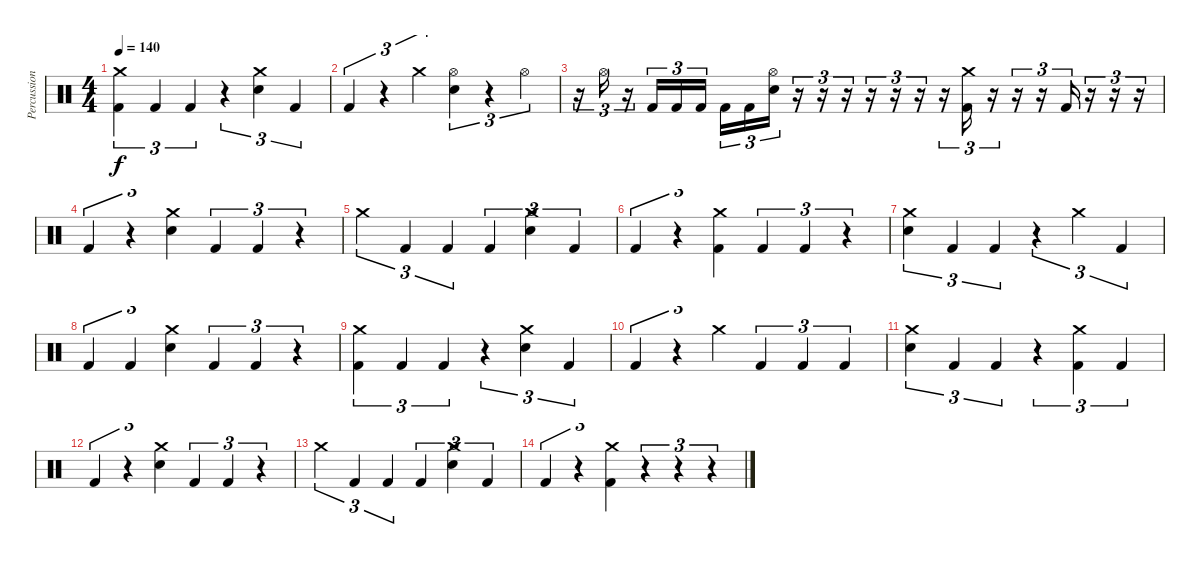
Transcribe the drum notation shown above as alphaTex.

\track ("Percussion" "Percussion") {instrument percussion}
\staff {score}
\articulation defaults
\ts (4 4)
\tempo 140
\clef neutral
\ks c
("Crash medium (hit)" "Kick (hit) 2").4{tu (3 2) dy f} "Kick (hit) 2".4{tu (3 2)} "Kick (hit) 2".4{tu (3 2)} r.4{tu (3 2)} ("Crash medium (hit)" "Electric Snare (hit)").4{tu (3 2)} "Kick (hit) 2".4{tu (3 2)} |
"Kick (hit) 2".4{tu (3 2)} r.4{tu (3 2)} "Crash medium (hit)".4{tu (3 2)} ("Hi-Hat (open)" "Electric Snare (hit)").4{tu (3 2)} r.4{tu (3 2)} "Hi-Hat (open)".4{tu (3 2)} |
r.16{tu (3 2)} "Hi-Hat (open)".16{tu (3 2)} r.16{tu (3 2)} "Kick (hit) 2".16{tu (3 2)} "Kick (hit) 2".16{tu (3 2)} "Kick (hit) 2".16{tu (3 2)} "Kick (hit) 2".16{tu (3 2)} "Kick (hit) 2".16{tu (3 2)} ("Hi-Hat (open)" "Electric Snare (hit)").16{tu (3 2)} r.16{tu (3 2)} r.16{tu (3 2)} r.16{tu (3 2)} r.16{tu (3 2)} r.16{tu (3 2)} r.16{tu (3 2)} r.16{tu (3 2)} ("Crash medium (hit)" "Kick (hit) 2").16{tu (3 2)} r.16{tu (3 2)} r.16{tu (3 2)} r.16{tu (3 2)} "Kick (hit) 2".16{tu (3 2)} r.16{tu (3 2)} r.16{tu (3 2)} r.16{tu (3 2)} |
"Kick (hit) 2".4{tu (3 2)} r.4{tu (3 2)} ("Crash medium (hit)" "Electric Snare (hit)").4{tu (3 2)} "Kick (hit) 2".4{tu (3 2)} "Kick (hit) 2".4{tu (3 2)} r.4{tu (3 2)} |
"Crash medium (hit)".4{tu (3 2)} "Kick (hit) 2".4{tu (3 2)} "Kick (hit) 2".4{tu (3 2)} "Kick (hit) 2".4{tu (3 2)} ("Crash medium (hit)" "Electric Snare (hit)").4{tu (3 2)} "Kick (hit) 2".4{tu (3 2)} |
"Kick (hit) 2".4{tu (3 2)} r.4{tu (3 2)} ("Crash medium (hit)" "Kick (hit) 2").4{tu (3 2)} "Kick (hit) 2".4{tu (3 2)} "Kick (hit) 2".4{tu (3 2)} r.4{tu (3 2)} |
("Crash medium (hit)" "Electric Snare (hit)").4{tu (3 2)} "Kick (hit) 2".4{tu (3 2)} "Kick (hit) 2".4{tu (3 2)} r.4{tu (3 2)} "Crash medium (hit)".4{tu (3 2)} "Kick (hit) 2".4{tu (3 2)} |
"Kick (hit) 2".4{tu (3 2)} "Kick (hit) 2".4{tu (3 2)} ("Crash medium (hit)" "Electric Snare (hit)").4{tu (3 2)} "Kick (hit) 2".4{tu (3 2)} "Kick (hit) 2".4{tu (3 2)} r.4{tu (3 2)} |
("Crash medium (hit)" "Kick (hit) 2").4{tu (3 2)} "Kick (hit) 2".4{tu (3 2)} "Kick (hit) 2".4{tu (3 2)} r.4{tu (3 2)} ("Crash medium (hit)" "Electric Snare (hit)").4{tu (3 2)} "Kick (hit) 2".4{tu (3 2)} |
"Kick (hit) 2".4{tu (3 2)} r.4{tu (3 2)} "Crash medium (hit)".4{tu (3 2)} "Kick (hit) 2".4{tu (3 2)} "Kick (hit) 2".4{tu (3 2)} "Kick (hit) 2".4{tu (3 2)} |
("Crash medium (hit)" "Electric Snare (hit)").4{tu (3 2)} "Kick (hit) 2".4{tu (3 2)} "Kick (hit) 2".4{tu (3 2)} r.4{tu (3 2)} ("Crash medium (hit)" "Kick (hit) 2").4{tu (3 2)} "Kick (hit) 2".4{tu (3 2)} |
"Kick (hit) 2".4{tu (3 2)} r.4{tu (3 2)} ("Crash medium (hit)" "Electric Snare (hit)").4{tu (3 2)} "Kick (hit) 2".4{tu (3 2)} "Kick (hit) 2".4{tu (3 2)} r.4{tu (3 2)} |
"Crash medium (hit)".4{tu (3 2)} "Kick (hit) 2".4{tu (3 2)} "Kick (hit) 2".4{tu (3 2)} "Kick (hit) 2".4{tu (3 2)} ("Crash medium (hit)" "Electric Snare (hit)").4{tu (3 2)} "Kick (hit) 2".4{tu (3 2)} |
"Kick (hit) 2".4{tu (3 2)} r.4{tu (3 2)} ("Crash medium (hit)" "Kick (hit) 2").4{tu (3 2)} r.4{tu (3 2)} r.4{tu (3 2)} r.4{tu (3 2)}
